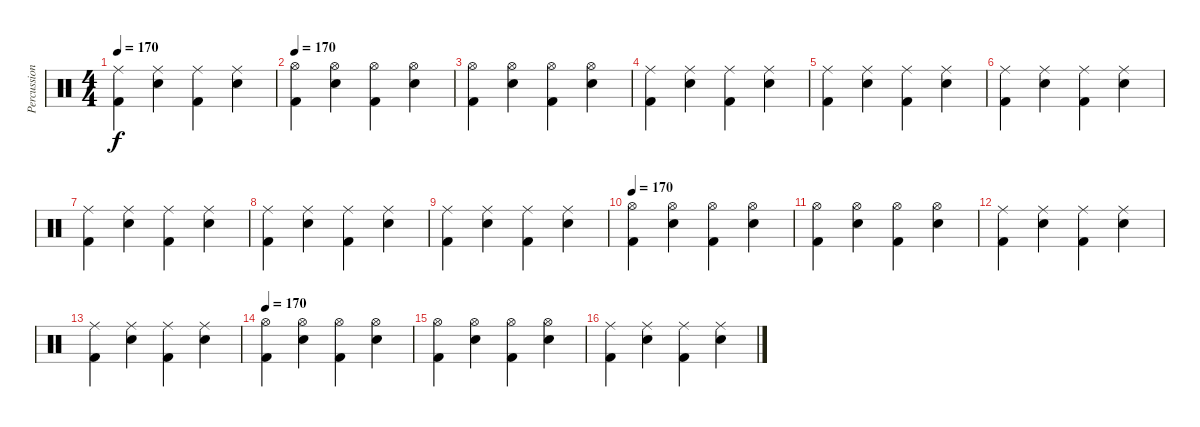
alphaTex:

\track ("Percussion" "Percussion") {instrument percussion}
\staff {score}
\articulation defaults
\ts (4 4)
\tempo 170
\clef neutral
\ks c
("Ride (middle)" "Kick (hit) 2").4{dy f} ("Ride (middle)" "Electric Snare (hit)").4 ("Ride (middle)" "Kick (hit) 2").4 ("Ride (middle)" "Electric Snare (hit)").4 |
\tempo 170
("Hi-Hat (open)" "Kick (hit) 2").4 ("Hi-Hat (open)" "Electric Snare (hit)").4 ("Hi-Hat (open)" "Kick (hit) 2").4 ("Hi-Hat (open)" "Electric Snare (hit)").4 |
("Hi-Hat (open)" "Kick (hit) 2").4 ("Hi-Hat (open)" "Electric Snare (hit)").4 ("Hi-Hat (open)" "Kick (hit) 2").4 ("Hi-Hat (open)" "Electric Snare (hit)").4 |
("Ride (middle)" "Kick (hit) 2").4 ("Ride (middle)" "Electric Snare (hit)").4 ("Ride (middle)" "Kick (hit) 2").4 ("Ride (middle)" "Electric Snare (hit)").4 |
("Ride (middle)" "Kick (hit) 2").4 ("Ride (middle)" "Electric Snare (hit)").4 ("Ride (middle)" "Kick (hit) 2").4 ("Ride (middle)" "Electric Snare (hit)").4 |
("Ride (middle)" "Kick (hit) 2").4 ("Ride (middle)" "Electric Snare (hit)").4 ("Ride (middle)" "Kick (hit) 2").4 ("Ride (middle)" "Electric Snare (hit)").4 |
("Ride (middle)" "Kick (hit) 2").4 ("Ride (middle)" "Electric Snare (hit)").4 ("Ride (middle)" "Kick (hit) 2").4 ("Ride (middle)" "Electric Snare (hit)").4 |
("Ride (middle)" "Kick (hit) 2").4 ("Ride (middle)" "Electric Snare (hit)").4 ("Ride (middle)" "Kick (hit) 2").4 ("Ride (middle)" "Electric Snare (hit)").4 |
("Ride (middle)" "Kick (hit) 2").4 ("Ride (middle)" "Electric Snare (hit)").4 ("Ride (middle)" "Kick (hit) 2").4 ("Ride (middle)" "Electric Snare (hit)").4 |
\tempo 170
("Hi-Hat (open)" "Kick (hit) 2").4 ("Hi-Hat (open)" "Electric Snare (hit)").4 ("Hi-Hat (open)" "Kick (hit) 2").4 ("Hi-Hat (open)" "Electric Snare (hit)").4 |
("Hi-Hat (open)" "Kick (hit) 2").4 ("Hi-Hat (open)" "Electric Snare (hit)").4 ("Hi-Hat (open)" "Kick (hit) 2").4 ("Hi-Hat (open)" "Electric Snare (hit)").4 |
("Ride (middle)" "Kick (hit) 2").4 ("Ride (middle)" "Electric Snare (hit)").4 ("Ride (middle)" "Kick (hit) 2").4 ("Ride (middle)" "Electric Snare (hit)").4 |
("Ride (middle)" "Kick (hit) 2").4 ("Ride (middle)" "Electric Snare (hit)").4 ("Ride (middle)" "Kick (hit) 2").4 ("Ride (middle)" "Electric Snare (hit)").4 |
\tempo 170
("Hi-Hat (open)" "Kick (hit) 2").4 ("Hi-Hat (open)" "Electric Snare (hit)").4 ("Hi-Hat (open)" "Kick (hit) 2").4 ("Hi-Hat (open)" "Electric Snare (hit)").4 |
("Hi-Hat (open)" "Kick (hit) 2").4 ("Hi-Hat (open)" "Electric Snare (hit)").4 ("Hi-Hat (open)" "Kick (hit) 2").4 ("Hi-Hat (open)" "Electric Snare (hit)").4 |
("Ride (middle)" "Kick (hit) 2").4 ("Ride (middle)" "Electric Snare (hit)").4 ("Ride (middle)" "Kick (hit) 2").4 ("Ride (middle)" "Electric Snare (hit)").4
